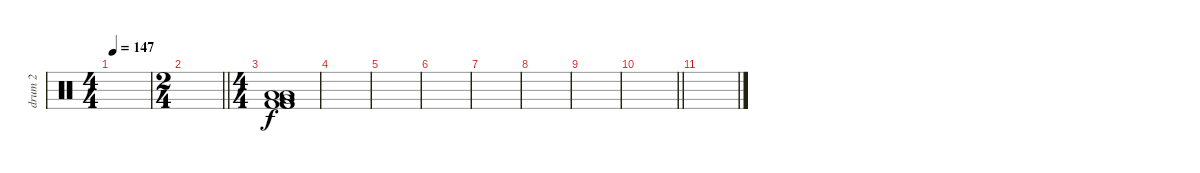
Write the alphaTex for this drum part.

\track ("drum 2" "drum 2") {instrument percussion}
\staff {score}
\articulation defaults
\ts (4 4)
\tempo 147
\clef neutral
\ks c
|
\ts (2 4)
\barLineRight lightlight
|
\ts (4 4)
\section ("" "")
("Low Floor Tom (hit)" "Low Floor Tom (hit)" "Very Low Tom (hit)" "Kick (hit) 2" "Kick (hit) 2" "Kick (hit) 2").1 |
|
|
|
|
|
|
\barLineRight lightlight
|
\section ("" "")
